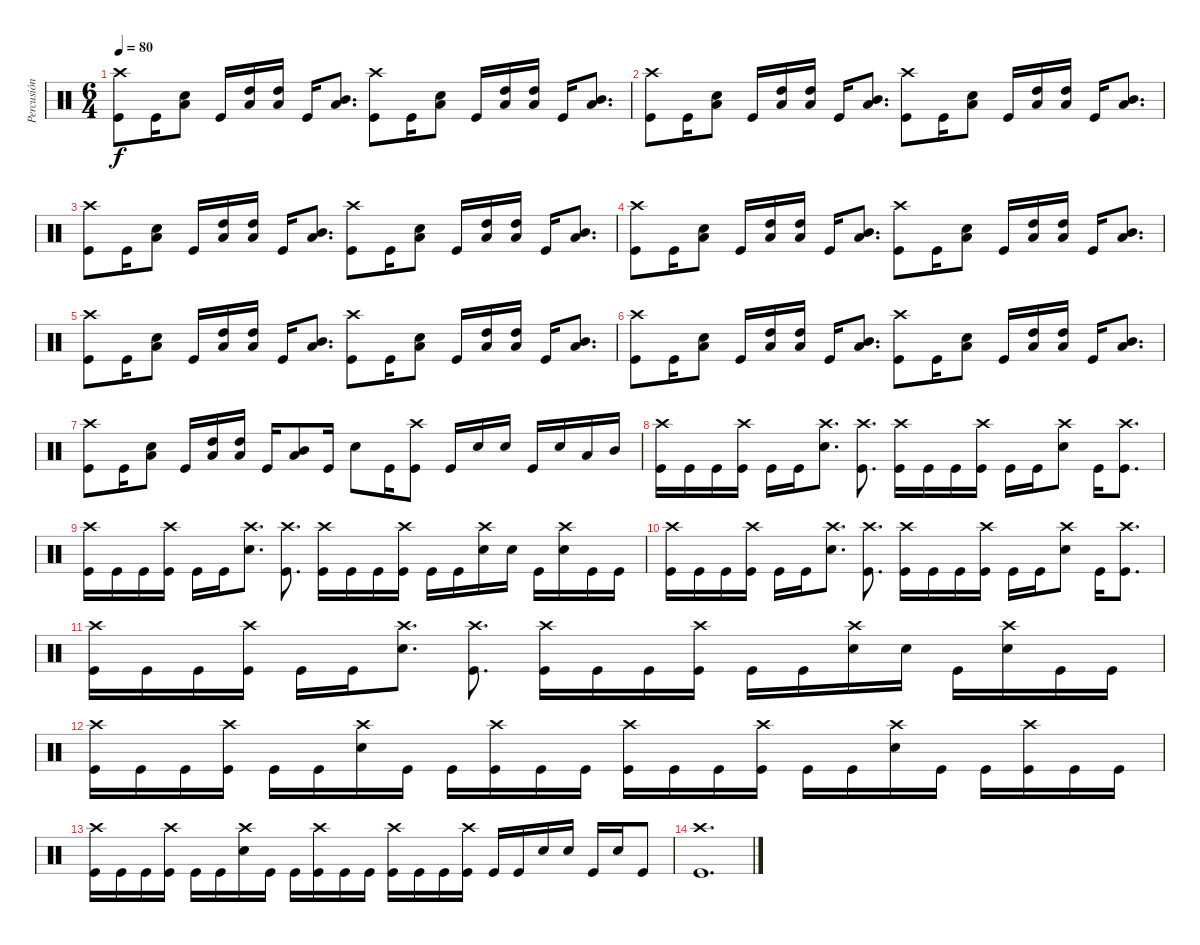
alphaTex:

\track ("Percusión" "Percusión") {instrument percussion}
\staff {score}
\articulation defaults
\ts (6 4)
\tempo 80
\clef neutral
\ks c
("Kick (hit)" "Crash high (hit)").8{dy f} "Kick (hit)".16 ("Snare (hit) 2" "Low Tom (hit)").8 "Kick (hit)".16 ("Low Tom (hit)" "High Tom (hit)").16 ("Low Tom (hit)" "High Tom (hit)").16 "Kick (hit)".16 ("Low Tom (hit)" "Mid Tom (hit)").8{d} ("Kick (hit)" "Crash high (hit)").8 "Kick (hit)".16 ("Snare (hit) 2" "Low Tom (hit)").8 "Kick (hit)".16 ("Low Tom (hit)" "High Tom (hit)").16 ("Low Tom (hit)" "High Tom (hit)").16 "Kick (hit)".16 ("Low Tom (hit)" "Mid Tom (hit)").8{d} |
("Kick (hit)" "Crash high (hit)").8 "Kick (hit)".16 ("Snare (hit) 2" "Low Tom (hit)").8 "Kick (hit)".16 ("Low Tom (hit)" "High Tom (hit)").16 ("Low Tom (hit)" "High Tom (hit)").16 "Kick (hit)".16 ("Low Tom (hit)" "Mid Tom (hit)").8{d} ("Kick (hit)" "Crash high (hit)").8 "Kick (hit)".16 ("Snare (hit) 2" "Low Tom (hit)").8 "Kick (hit)".16 ("Low Tom (hit)" "High Tom (hit)").16 ("Low Tom (hit)" "High Tom (hit)").16 "Kick (hit)".16 ("Low Tom (hit)" "Mid Tom (hit)").8{d} |
("Kick (hit)" "Crash high (hit)").8 "Kick (hit)".16 ("Snare (hit) 2" "Low Tom (hit)").8 "Kick (hit)".16 ("Low Tom (hit)" "High Tom (hit)").16 ("Low Tom (hit)" "High Tom (hit)").16 "Kick (hit)".16 ("Low Tom (hit)" "Mid Tom (hit)").8{d} ("Kick (hit)" "Crash high (hit)").8 "Kick (hit)".16 ("Snare (hit) 2" "Low Tom (hit)").8 "Kick (hit)".16 ("Low Tom (hit)" "High Tom (hit)").16 ("Low Tom (hit)" "High Tom (hit)").16 "Kick (hit)".16 ("Low Tom (hit)" "Mid Tom (hit)").8{d} |
("Kick (hit)" "Crash high (hit)").8 "Kick (hit)".16 ("Snare (hit) 2" "Low Tom (hit)").8 "Kick (hit)".16 ("Low Tom (hit)" "High Tom (hit)").16 ("Low Tom (hit)" "High Tom (hit)").16 "Kick (hit)".16 ("Low Tom (hit)" "Mid Tom (hit)").8{d} ("Kick (hit)" "Crash high (hit)").8 "Kick (hit)".16 ("Snare (hit) 2" "Low Tom (hit)").8 "Kick (hit)".16 ("Low Tom (hit)" "High Tom (hit)").16 ("Low Tom (hit)" "High Tom (hit)").16 "Kick (hit)".16 ("Low Tom (hit)" "Mid Tom (hit)").8{d} |
("Kick (hit)" "Crash high (hit)").8 "Kick (hit)".16 ("Snare (hit) 2" "Low Tom (hit)").8 "Kick (hit)".16 ("Low Tom (hit)" "High Tom (hit)").16 ("Low Tom (hit)" "High Tom (hit)").16 "Kick (hit)".16 ("Low Tom (hit)" "Mid Tom (hit)").8{d} ("Kick (hit)" "Crash high (hit)").8 "Kick (hit)".16 ("Snare (hit) 2" "Low Tom (hit)").8 "Kick (hit)".16 ("Low Tom (hit)" "High Tom (hit)").16 ("Low Tom (hit)" "High Tom (hit)").16 "Kick (hit)".16 ("Low Tom (hit)" "Mid Tom (hit)").8{d} |
("Kick (hit)" "Crash high (hit)").8 "Kick (hit)".16 ("Snare (hit) 2" "Low Tom (hit)").8 "Kick (hit)".16 ("Low Tom (hit)" "High Tom (hit)").16 ("Low Tom (hit)" "High Tom (hit)").16 "Kick (hit)".16 ("Low Tom (hit)" "Mid Tom (hit)").8{d} ("Kick (hit)" "Crash high (hit)").8 "Kick (hit)".16 ("Snare (hit) 2" "Low Tom (hit)").8 "Kick (hit)".16 ("Low Tom (hit)" "High Tom (hit)").16 ("Low Tom (hit)" "High Tom (hit)").16 "Kick (hit)".16 ("Low Tom (hit)" "Mid Tom (hit)").8{d} |
("Kick (hit)" "Crash high (hit)").8 "Kick (hit)".16 ("Snare (hit) 2" "Low Tom (hit)").8 "Kick (hit)".16 ("Low Tom (hit)" "High Tom (hit)").16 ("Low Tom (hit)" "High Tom (hit)").16 "Kick (hit)".16 ("Low Tom (hit)" "Mid Tom (hit)").8 "Kick (hit)".16 "Snare (hit) 2".8 "Kick (hit)".16 ("Kick (hit)" "Crash high (hit)").8 "Kick (hit)".16 "Snare (hit) 2".16 "Snare (hit) 2".16 "Kick (hit)".16 "Snare (hit) 2".16 "Low Tom (hit)".16 "Mid Tom (hit)".16 |
("Kick (hit)" "Crash high (hit)").16 "Kick (hit)".16 "Kick (hit)".16 ("Kick (hit)" "Crash high (hit)").16 "Kick (hit)".16 "Kick (hit)".16 ("Snare (hit) 2" "Crash high (hit)").8{d} ("Kick (hit)" "Crash high (hit)").8{d} ("Kick (hit)" "Crash high (hit)").16 "Kick (hit)".16 "Kick (hit)".16 ("Kick (hit)" "Crash high (hit)").16 "Kick (hit)".16 "Kick (hit)".16 ("Crash high (hit)" "Snare (hit) 2").8 "Kick (hit)".16 ("Kick (hit)" "Crash high (hit)").8{d} |
("Kick (hit)" "Crash high (hit)").16 "Kick (hit)".16 "Kick (hit)".16 ("Kick (hit)" "Crash high (hit)").16 "Kick (hit)".16 "Kick (hit)".16 ("Snare (hit) 2" "Crash high (hit)").8{d} ("Kick (hit)" "Crash high (hit)").8{d} ("Kick (hit)" "Crash high (hit)").16 "Kick (hit)".16 "Kick (hit)".16 ("Kick (hit)" "Crash high (hit)").16 "Kick (hit)".16 "Kick (hit)".16 ("Crash high (hit)" "Snare (hit) 2").16 "Snare (hit) 2".16 "Kick (hit)".16 ("Snare (hit) 2" "Crash high (hit)").16 "Kick (hit)".16 "Kick (hit)".16 |
("Kick (hit)" "Crash high (hit)").16 "Kick (hit)".16 "Kick (hit)".16 ("Kick (hit)" "Crash high (hit)").16 "Kick (hit)".16 "Kick (hit)".16 ("Snare (hit) 2" "Crash high (hit)").8{d} ("Kick (hit)" "Crash high (hit)").8{d} ("Kick (hit)" "Crash high (hit)").16 "Kick (hit)".16 "Kick (hit)".16 ("Kick (hit)" "Crash high (hit)").16 "Kick (hit)".16 "Kick (hit)".16 ("Crash high (hit)" "Snare (hit) 2").8 "Kick (hit)".16 ("Kick (hit)" "Crash high (hit)").8{d} |
("Kick (hit)" "Crash high (hit)").16 "Kick (hit)".16 "Kick (hit)".16 ("Kick (hit)" "Crash high (hit)").16 "Kick (hit)".16 "Kick (hit)".16 ("Snare (hit) 2" "Crash high (hit)").8{d} ("Kick (hit)" "Crash high (hit)").8{d} ("Kick (hit)" "Crash high (hit)").16 "Kick (hit)".16 "Kick (hit)".16 ("Kick (hit)" "Crash high (hit)").16 "Kick (hit)".16 "Kick (hit)".16 ("Crash high (hit)" "Snare (hit) 2").16 "Snare (hit) 2".16 "Kick (hit)".16 ("Snare (hit) 2" "Crash high (hit)").16 "Kick (hit)".16 "Kick (hit)".16 |
("Kick (hit)" "Crash high (hit)").16 "Kick (hit)".16 "Kick (hit)".16 ("Kick (hit)" "Crash high (hit)").16 "Kick (hit)".16 "Kick (hit)".16 ("Snare (hit) 2" "Crash high (hit)").16 "Kick (hit)".16 "Kick (hit)".16 ("Kick (hit)" "Crash high (hit)").16 "Kick (hit)".16 "Kick (hit)".16 ("Kick (hit)" "Crash high (hit)").16 "Kick (hit)".16 "Kick (hit)".16 ("Kick (hit)" "Crash high (hit)").16 "Kick (hit)".16 "Kick (hit)".16 ("Snare (hit) 2" "Crash high (hit)").16 "Kick (hit)".16 "Kick (hit)".16 ("Kick (hit)" "Crash high (hit)").16 "Kick (hit)".16 "Kick (hit)".16 |
("Kick (hit)" "Crash high (hit)").16 "Kick (hit)".16 "Kick (hit)".16 ("Kick (hit)" "Crash high (hit)").16 "Kick (hit)".16 "Kick (hit)".16 ("Snare (hit) 2" "Crash high (hit)").16 "Kick (hit)".16 "Kick (hit)".16 ("Kick (hit)" "Crash high (hit)").16 "Kick (hit)".16 "Kick (hit)".16 ("Kick (hit)" "Crash high (hit)").16 "Kick (hit)".16 "Kick (hit)".16 ("Kick (hit)" "Crash high (hit)").16 "Kick (hit)".16 "Kick (hit)".16 "Snare (hit) 2".16 "Snare (hit) 2".16 "Kick (hit)".16 "Snare (hit) 2".16 "Kick (hit)".8 |
("Kick (hit)" "Crash high (hit)").1{d}
